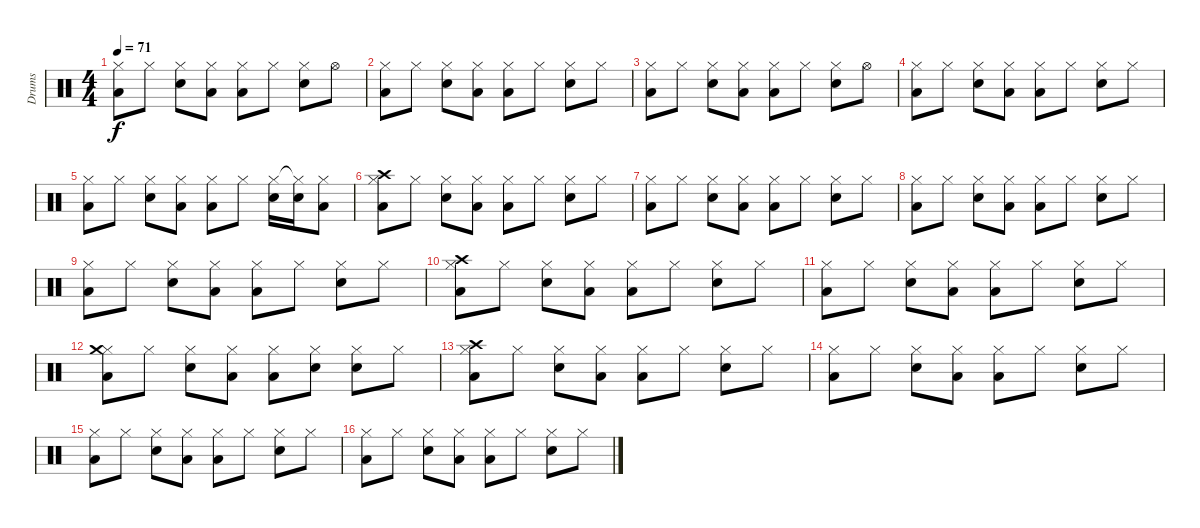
\track ("Drums" "Drums") {instrument percussion}
\staff {score}
\articulation defaults
\ts (4 4)
\tempo 71
\clef neutral
\ks c
("Hi-Hat (closed)" "Low Tom (hit)").8{dy f} "Hi-Hat (closed)".8 ("Hi-Hat (closed)" "Snare (hit) 2").8 ("Hi-Hat (closed)" "Low Tom (hit)").8 ("Hi-Hat (closed)" "Low Tom (hit)").8 "Hi-Hat (closed)".8 ("Hi-Hat (closed)" "Snare (hit) 2").8 "Hi-Hat (open)".8 |
("Hi-Hat (closed)" "Low Tom (hit)").8 "Hi-Hat (closed)".8 ("Hi-Hat (closed)" "Snare (hit) 2").8 ("Hi-Hat (closed)" "Low Tom (hit)").8 ("Hi-Hat (closed)" "Low Tom (hit)").8 "Hi-Hat (closed)".8 ("Hi-Hat (closed)" "Snare (hit) 2").8 "Hi-Hat (closed)".8 |
("Hi-Hat (closed)" "Low Tom (hit)").8 "Hi-Hat (closed)".8 ("Hi-Hat (closed)" "Snare (hit) 2").8 ("Hi-Hat (closed)" "Low Tom (hit)").8 ("Hi-Hat (closed)" "Low Tom (hit)").8 "Hi-Hat (closed)".8 ("Hi-Hat (closed)" "Snare (hit) 2").8 "Hi-Hat (open)".8 |
("Hi-Hat (closed)" "Low Tom (hit)").8 "Hi-Hat (closed)".8 ("Hi-Hat (closed)" "Snare (hit) 2").8 ("Hi-Hat (closed)" "Low Tom (hit)").8 ("Hi-Hat (closed)" "Low Tom (hit)").8 "Hi-Hat (closed)".8 ("Hi-Hat (closed)" "Snare (hit) 2").8 "Hi-Hat (closed)".8 |
("Hi-Hat (closed)" "Low Tom (hit)").8 "Hi-Hat (closed)".8 ("Hi-Hat (closed)" "Snare (hit) 2").8 ("Hi-Hat (closed)" "Low Tom (hit)").8 ("Hi-Hat (closed)" "Low Tom (hit)").8 "Hi-Hat (closed)".8 ("Hi-Hat (closed)" "Snare (hit) 2").16 ("Hi-Hat (closed)"{t} "Snare (hit) 2").16 ("Hi-Hat (closed)" "Low Tom (hit)").8 |
("Hi-Hat (closed)" "Low Tom (hit)" "Crash high (hit)").8 "Hi-Hat (closed)".8 ("Hi-Hat (closed)" "Snare (hit) 2").8 ("Hi-Hat (closed)" "Low Tom (hit)").8 ("Hi-Hat (closed)" "Low Tom (hit)").8 "Hi-Hat (closed)".8 ("Hi-Hat (closed)" "Snare (hit) 2").8 "Hi-Hat (closed)".8 |
("Hi-Hat (closed)" "Low Tom (hit)").8 "Hi-Hat (closed)".8 ("Hi-Hat (closed)" "Snare (hit) 2").8 ("Hi-Hat (closed)" "Low Tom (hit)").8 ("Hi-Hat (closed)" "Low Tom (hit)").8 "Hi-Hat (closed)".8 ("Hi-Hat (closed)" "Snare (hit) 2").8 "Hi-Hat (closed)".8 |
("Hi-Hat (closed)" "Low Tom (hit)").8 "Hi-Hat (closed)".8 ("Hi-Hat (closed)" "Snare (hit) 2").8 ("Hi-Hat (closed)" "Low Tom (hit)").8 ("Hi-Hat (closed)" "Low Tom (hit)").8 "Hi-Hat (closed)".8 ("Hi-Hat (closed)" "Snare (hit) 2").8 "Hi-Hat (closed)".8 |
("Hi-Hat (closed)" "Low Tom (hit)").8 "Hi-Hat (closed)".8 ("Hi-Hat (closed)" "Snare (hit) 2").8 ("Hi-Hat (closed)" "Low Tom (hit)").8 ("Hi-Hat (closed)" "Low Tom (hit)").8 "Hi-Hat (closed)".8 ("Hi-Hat (closed)" "Snare (hit) 2").8 "Hi-Hat (closed)".8 |
("Hi-Hat (closed)" "Low Tom (hit)" "Crash high (hit)").8 "Hi-Hat (closed)".8 ("Hi-Hat (closed)" "Snare (hit) 2").8 ("Hi-Hat (closed)" "Low Tom (hit)").8 ("Hi-Hat (closed)" "Low Tom (hit)").8 "Hi-Hat (closed)".8 ("Hi-Hat (closed)" "Snare (hit) 2").8 "Hi-Hat (closed)".8 |
("Hi-Hat (closed)" "Low Tom (hit)").8 "Hi-Hat (closed)".8 ("Hi-Hat (closed)" "Snare (hit) 2").8 ("Hi-Hat (closed)" "Low Tom (hit)").8 ("Hi-Hat (closed)" "Low Tom (hit)").8 "Hi-Hat (closed)".8 ("Hi-Hat (closed)" "Snare (hit) 2").8 "Hi-Hat (closed)".8 |
("Hi-Hat (closed)" "Low Tom (hit)" "Crash medium (hit)").8 "Hi-Hat (closed)".8 ("Hi-Hat (closed)" "Snare (hit) 2").8 ("Hi-Hat (closed)" "Low Tom (hit)").8 ("Hi-Hat (closed)" "Low Tom (hit)").8 ("Hi-Hat (closed)" "Snare (hit) 2").8 ("Hi-Hat (closed)" "Snare (hit) 2").8 "Hi-Hat (closed)".8 |
("Hi-Hat (closed)" "Low Tom (hit)" "Crash high (hit)").8 "Hi-Hat (closed)".8 ("Hi-Hat (closed)" "Snare (hit) 2").8 ("Hi-Hat (closed)" "Low Tom (hit)").8 ("Hi-Hat (closed)" "Low Tom (hit)").8 "Hi-Hat (closed)".8 ("Hi-Hat (closed)" "Snare (hit) 2").8 "Hi-Hat (closed)".8 |
("Hi-Hat (closed)" "Low Tom (hit)").8 "Hi-Hat (closed)".8 ("Hi-Hat (closed)" "Snare (hit) 2").8 ("Hi-Hat (closed)" "Low Tom (hit)").8 ("Hi-Hat (closed)" "Low Tom (hit)").8 "Hi-Hat (closed)".8 ("Hi-Hat (closed)" "Snare (hit) 2").8 "Hi-Hat (closed)".8 |
("Hi-Hat (closed)" "Low Tom (hit)").8 "Hi-Hat (closed)".8 ("Hi-Hat (closed)" "Snare (hit) 2").8 ("Hi-Hat (closed)" "Low Tom (hit)").8 ("Hi-Hat (closed)" "Low Tom (hit)").8 "Hi-Hat (closed)".8 ("Hi-Hat (closed)" "Snare (hit) 2").8 "Hi-Hat (closed)".8 |
("Hi-Hat (closed)" "Low Tom (hit)").8 "Hi-Hat (closed)".8 ("Hi-Hat (closed)" "Snare (hit) 2").8 ("Hi-Hat (closed)" "Low Tom (hit)").8 ("Hi-Hat (closed)" "Low Tom (hit)").8 "Hi-Hat (closed)".8 ("Hi-Hat (closed)" "Snare (hit) 2").8 "Hi-Hat (closed)".8
